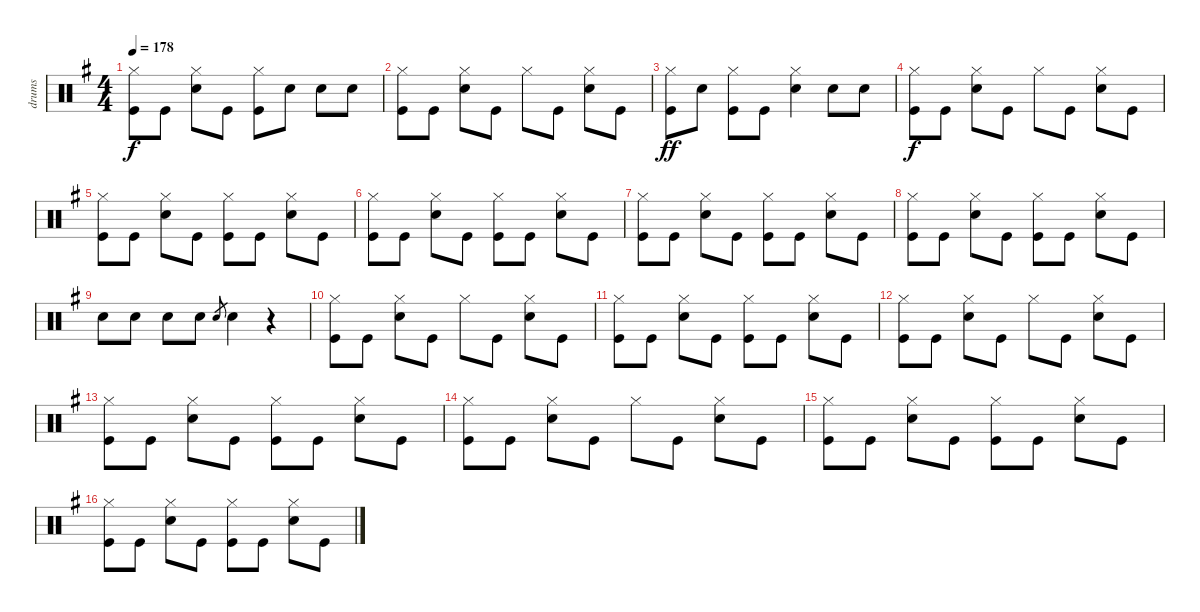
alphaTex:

\track ("drums" "drums") {instrument percussion}
\staff {score}
\articulation defaults
\ts (4 4)
\tempo 178
\clef neutral
\ks eminor
("Hi-Hat (closed)" "Kick (hit)").8{dy f} "Kick (hit)".8 ("Hi-Hat (closed)" "Snare (hit) 2").8 "Kick (hit)".8 ("Hi-Hat (closed)" "Kick (hit)").8 "Snare (hit) 2".8 "Snare (hit) 2".8 "Snare (hit) 2".8 |
("Hi-Hat (closed)" "Kick (hit)").8 "Kick (hit)".8 ("Hi-Hat (closed)" "Snare (hit) 2").8 "Kick (hit)".8 "Hi-Hat (closed)".8 "Kick (hit)".8 ("Hi-Hat (closed)" "Snare (hit) 2").8 "Kick (hit)".8 |
("Hi-Hat (closed)" "Kick (hit)").8{dy ff} "Snare (hit) 2".8 ("Hi-Hat (closed)" "Kick (hit)").8 "Kick (hit)".8 ("Hi-Hat (closed)" "Snare (hit) 2").4 "Snare (hit) 2".8 "Snare (hit) 2".8 |
("Hi-Hat (closed)" "Kick (hit)").8{dy f} "Kick (hit)".8 ("Hi-Hat (closed)" "Snare (hit) 2").8 "Kick (hit)".8 "Hi-Hat (closed)".8 "Kick (hit)".8 ("Hi-Hat (closed)" "Snare (hit) 2").8 "Kick (hit)".8 |
("Hi-Hat (closed)" "Kick (hit)").8 "Kick (hit)".8 ("Hi-Hat (closed)" "Snare (hit) 2").8 "Kick (hit)".8 ("Hi-Hat (closed)" "Kick (hit)").8 "Kick (hit)".8 ("Hi-Hat (closed)" "Snare (hit) 2").8 "Kick (hit)".8 |
("Hi-Hat (closed)" "Kick (hit)").8 "Kick (hit)".8 ("Hi-Hat (closed)" "Snare (hit) 2").8 "Kick (hit)".8 ("Hi-Hat (closed)" "Kick (hit)").8 "Kick (hit)".8 ("Hi-Hat (closed)" "Snare (hit) 2").8 "Kick (hit)".8 |
("Hi-Hat (closed)" "Kick (hit)").8 "Kick (hit)".8 ("Hi-Hat (closed)" "Snare (hit) 2").8 "Kick (hit)".8 ("Hi-Hat (closed)" "Kick (hit)").8 "Kick (hit)".8 ("Hi-Hat (closed)" "Snare (hit) 2").8 "Kick (hit)".8 |
("Hi-Hat (closed)" "Kick (hit)").8 "Kick (hit)".8 ("Hi-Hat (closed)" "Snare (hit) 2").8 "Kick (hit)".8 ("Hi-Hat (closed)" "Kick (hit)").8 "Kick (hit)".8 ("Hi-Hat (closed)" "Snare (hit) 2").8 "Kick (hit)".8 |
"Snare (hit) 2".8 "Snare (hit) 2".8 "Snare (hit) 2".8 "Snare (hit) 2".8 "Snare (hit) 2".8{gr} "Snare (hit) 2".4 r.4 |
("Hi-Hat (closed)" "Kick (hit)").8 "Kick (hit)".8 ("Hi-Hat (closed)" "Snare (hit) 2").8 "Kick (hit)".8 "Hi-Hat (closed)".8 "Kick (hit)".8 ("Hi-Hat (closed)" "Snare (hit) 2").8 "Kick (hit)".8 |
("Hi-Hat (closed)" "Kick (hit)").8 "Kick (hit)".8 ("Hi-Hat (closed)" "Snare (hit) 2").8 "Kick (hit)".8 ("Hi-Hat (closed)" "Kick (hit)").8 "Kick (hit)".8 ("Hi-Hat (closed)" "Snare (hit) 2").8 "Kick (hit)".8 |
("Hi-Hat (closed)" "Kick (hit)").8 "Kick (hit)".8 ("Hi-Hat (closed)" "Snare (hit) 2").8 "Kick (hit)".8 "Hi-Hat (closed)".8 "Kick (hit)".8 ("Hi-Hat (closed)" "Snare (hit) 2").8 "Kick (hit)".8 |
("Hi-Hat (closed)" "Kick (hit)").8 "Kick (hit)".8 ("Hi-Hat (closed)" "Snare (hit) 2").8 "Kick (hit)".8 ("Hi-Hat (closed)" "Kick (hit)").8 "Kick (hit)".8 ("Hi-Hat (closed)" "Snare (hit) 2").8 "Kick (hit)".8 |
("Hi-Hat (closed)" "Kick (hit)").8 "Kick (hit)".8 ("Hi-Hat (closed)" "Snare (hit) 2").8 "Kick (hit)".8 "Hi-Hat (closed)".8 "Kick (hit)".8 ("Hi-Hat (closed)" "Snare (hit) 2").8 "Kick (hit)".8 |
("Hi-Hat (closed)" "Kick (hit)").8 "Kick (hit)".8 ("Hi-Hat (closed)" "Snare (hit) 2").8 "Kick (hit)".8 ("Hi-Hat (closed)" "Kick (hit)").8 "Kick (hit)".8 ("Hi-Hat (closed)" "Snare (hit) 2").8 "Kick (hit)".8 |
("Hi-Hat (closed)" "Kick (hit)").8 "Kick (hit)".8 ("Hi-Hat (closed)" "Snare (hit) 2").8 "Kick (hit)".8 ("Hi-Hat (closed)" "Kick (hit)").8 "Kick (hit)".8 ("Hi-Hat (closed)" "Snare (hit) 2").8 "Kick (hit)".8
